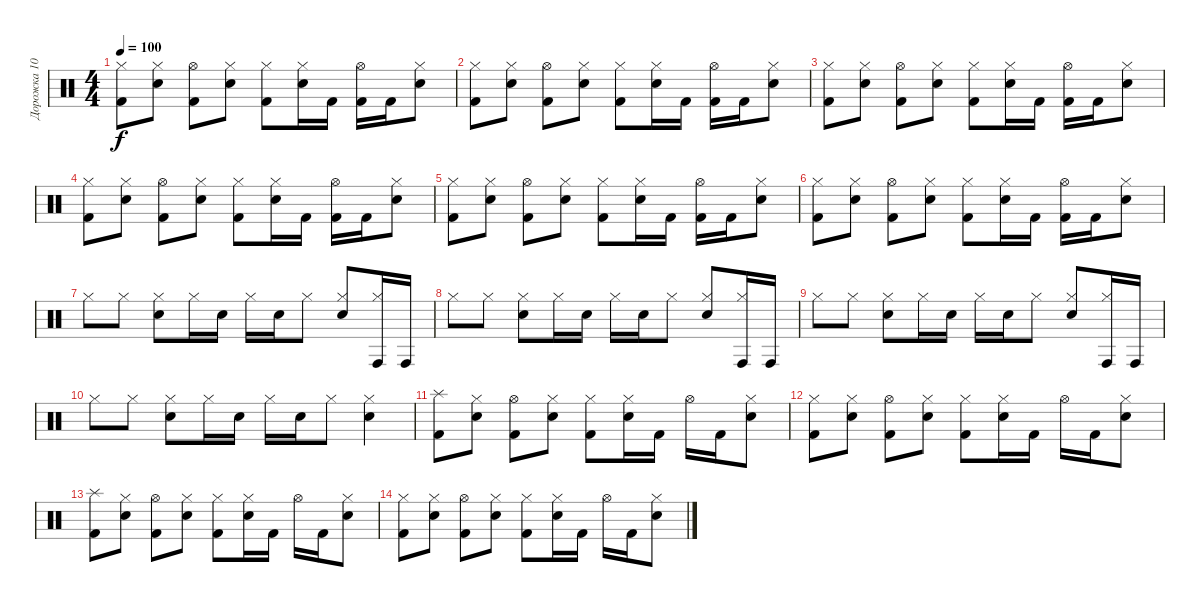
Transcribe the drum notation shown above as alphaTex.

\track ("Дорожка 10" "Дорожка 10") {instrument percussion}
\staff {score}
\articulation defaults
\ts (4 4)
\tempo 100
\clef neutral
\ks c
("Kick (hit) 2" "Hi-Hat (closed)").8{dy f} ("Electric Snare (hit)" "Hi-Hat (closed)").8 ("Kick (hit) 2" "Hi-Hat (open)").8 ("Electric Snare (hit)" "Hi-Hat (closed)").8 ("Kick (hit) 2" "Hi-Hat (closed)").8 ("Electric Snare (hit)" "Hi-Hat (closed)").16 "Kick (hit) 2".16 ("Kick (hit) 2" "Hi-Hat (open)").16 "Kick (hit) 2".16 ("Electric Snare (hit)" "Hi-Hat (closed)").8 |
("Kick (hit) 2" "Hi-Hat (closed)").8 ("Electric Snare (hit)" "Hi-Hat (closed)").8 ("Kick (hit) 2" "Hi-Hat (open)").8 ("Electric Snare (hit)" "Hi-Hat (closed)").8 ("Kick (hit) 2" "Hi-Hat (closed)").8 ("Electric Snare (hit)" "Hi-Hat (closed)").16 "Kick (hit) 2".16 ("Kick (hit) 2" "Hi-Hat (open)").16 "Kick (hit) 2".16 ("Electric Snare (hit)" "Hi-Hat (closed)").8 |
("Kick (hit) 2" "Hi-Hat (closed)").8 ("Electric Snare (hit)" "Hi-Hat (closed)").8 ("Kick (hit) 2" "Hi-Hat (open)").8 ("Electric Snare (hit)" "Hi-Hat (closed)").8 ("Kick (hit) 2" "Hi-Hat (closed)").8 ("Electric Snare (hit)" "Hi-Hat (closed)").16 "Kick (hit) 2".16 ("Kick (hit) 2" "Hi-Hat (open)").16 "Kick (hit) 2".16 ("Electric Snare (hit)" "Hi-Hat (closed)").8 |
("Kick (hit) 2" "Hi-Hat (closed)").8 ("Electric Snare (hit)" "Hi-Hat (closed)").8 ("Kick (hit) 2" "Hi-Hat (open)").8 ("Electric Snare (hit)" "Hi-Hat (closed)").8 ("Kick (hit) 2" "Hi-Hat (closed)").8 ("Electric Snare (hit)" "Hi-Hat (closed)").16 "Kick (hit) 2".16 ("Kick (hit) 2" "Hi-Hat (open)").16 "Kick (hit) 2".16 ("Electric Snare (hit)" "Hi-Hat (closed)").8 |
("Kick (hit) 2" "Hi-Hat (closed)").8 ("Electric Snare (hit)" "Hi-Hat (closed)").8 ("Kick (hit) 2" "Hi-Hat (open)").8 ("Electric Snare (hit)" "Hi-Hat (closed)").8 ("Kick (hit) 2" "Hi-Hat (closed)").8 ("Electric Snare (hit)" "Hi-Hat (closed)").16 "Kick (hit) 2".16 ("Kick (hit) 2" "Hi-Hat (open)").16 "Kick (hit) 2".16 ("Electric Snare (hit)" "Hi-Hat (closed)").8 |
("Kick (hit) 2" "Hi-Hat (closed)").8 ("Electric Snare (hit)" "Hi-Hat (closed)").8 ("Kick (hit) 2" "Hi-Hat (open)").8 ("Electric Snare (hit)" "Hi-Hat (closed)").8 ("Kick (hit) 2" "Hi-Hat (closed)").8 ("Electric Snare (hit)" "Hi-Hat (closed)").16 "Kick (hit) 2".16 ("Kick (hit) 2" "Hi-Hat (open)").16 "Kick (hit) 2".16 ("Electric Snare (hit)" "Hi-Hat (closed)").8 |
"Hi-Hat (closed)".8 "Hi-Hat (closed)".8 ("Electric Snare (hit)" "Hi-Hat (closed)").8 "Hi-Hat (closed)".16 "Electric Snare (hit)".16 "Hi-Hat (closed)".16 "Electric Snare (hit)".16 "Hi-Hat (closed)".8 ("Electric Snare (hit)" "Hi-Hat (closed)").8 ("Conga high (hit)" "Hi-Hat (closed)").16 "Conga high (hit)".16 |
"Hi-Hat (closed)".8 "Hi-Hat (closed)".8 ("Electric Snare (hit)" "Hi-Hat (closed)").8 "Hi-Hat (closed)".16 "Electric Snare (hit)".16 "Hi-Hat (closed)".16 "Electric Snare (hit)".16 "Hi-Hat (closed)".8 ("Electric Snare (hit)" "Hi-Hat (closed)").8 ("Conga high (hit)" "Hi-Hat (closed)").16 "Conga high (hit)".16 |
"Hi-Hat (closed)".8 "Hi-Hat (closed)".8 ("Electric Snare (hit)" "Hi-Hat (closed)").8 "Hi-Hat (closed)".16 "Electric Snare (hit)".16 "Hi-Hat (closed)".16 "Electric Snare (hit)".16 "Hi-Hat (closed)".8 ("Electric Snare (hit)" "Hi-Hat (closed)").8 ("Conga high (hit)" "Hi-Hat (closed)").16 "Conga high (hit)".16 |
"Hi-Hat (closed)".8 "Hi-Hat (closed)".8 ("Electric Snare (hit)" "Hi-Hat (closed)").8 "Hi-Hat (closed)".16 "Electric Snare (hit)".16 "Hi-Hat (closed)".16 "Electric Snare (hit)".16 "Hi-Hat (closed)".8 ("Electric Snare (hit)" "Hi-Hat (closed)").4 |
("Kick (hit) 2" "Splash (hit)").8 ("Electric Snare (hit)" "Hi-Hat (closed)").8 ("Kick (hit) 2" "Hi-Hat (open)").8 ("Electric Snare (hit)" "Hi-Hat (closed)").8 ("Kick (hit) 2" "Hi-Hat (closed)").8 ("Electric Snare (hit)" "Hi-Hat (closed)").16 "Kick (hit) 2".16 "Hi-Hat (open)".16 "Kick (hit) 2".16 ("Electric Snare (hit)" "Hi-Hat (closed)").8 |
("Kick (hit) 2" "Hi-Hat (closed)").8 ("Electric Snare (hit)" "Hi-Hat (closed)").8 ("Kick (hit) 2" "Hi-Hat (open)").8 ("Electric Snare (hit)" "Hi-Hat (closed)").8 ("Kick (hit) 2" "Hi-Hat (closed)").8 ("Electric Snare (hit)" "Hi-Hat (closed)").16 "Kick (hit) 2".16 "Hi-Hat (open)".16 "Kick (hit) 2".16 ("Electric Snare (hit)" "Hi-Hat (closed)").8 |
("Kick (hit) 2" "Splash (hit)").8 ("Electric Snare (hit)" "Hi-Hat (closed)").8 ("Kick (hit) 2" "Hi-Hat (open)").8 ("Electric Snare (hit)" "Hi-Hat (closed)").8 ("Kick (hit) 2" "Hi-Hat (closed)").8 ("Electric Snare (hit)" "Hi-Hat (closed)").16 "Kick (hit) 2".16 "Hi-Hat (open)".16 "Kick (hit) 2".16 ("Electric Snare (hit)" "Hi-Hat (closed)").8 |
("Kick (hit) 2" "Hi-Hat (closed)").8 ("Electric Snare (hit)" "Hi-Hat (closed)").8 ("Kick (hit) 2" "Hi-Hat (open)").8 ("Electric Snare (hit)" "Hi-Hat (closed)").8 ("Kick (hit) 2" "Hi-Hat (closed)").8 ("Electric Snare (hit)" "Hi-Hat (closed)").16 "Kick (hit) 2".16 "Hi-Hat (open)".16 "Kick (hit) 2".16 ("Electric Snare (hit)" "Hi-Hat (closed)").8
